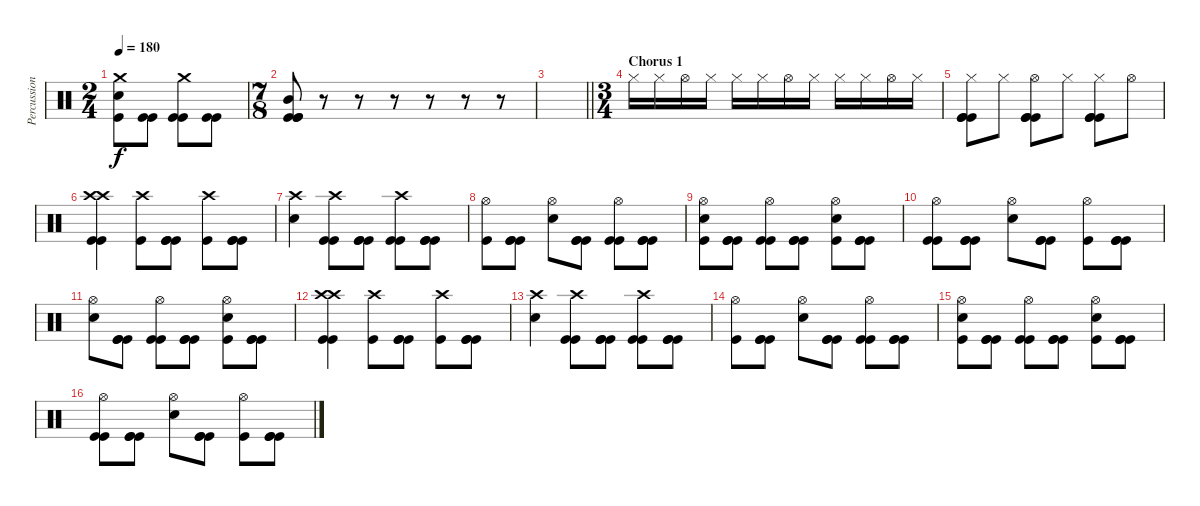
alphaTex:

\track ("Percussion" "Percussion") {instrument percussion}
\staff {score}
\articulation defaults
\ts (2 4)
\tempo 180
\clef neutral
\ks c
("Crash medium (hit)" "Electric Snare (hit)" "Kick (hit)").8{dy f} ("Kick (hit)" "Kick (hit)").8 ("Crash medium (hit)" "Kick (hit)" "Kick (hit)").8 ("Kick (hit)" "Kick (hit)").8 |
\ts (7 8)
("Mid Tom (hit)" "Kick (hit)" "Kick (hit)" "Kick (hit)").8 r.8 r.8 r.8 r.8 r.8 r.8 |
\barLineRight lightlight
|
\ts (3 4)
\section ("" "Chorus 1")
"Hi-Hat (closed)".16 "Hi-Hat (closed)".16 "Hi-Hat (open)".16 "Hi-Hat (closed)".16 "Hi-Hat (closed)".16 "Hi-Hat (closed)".16 "Hi-Hat (open)".16 "Hi-Hat (closed)".16 "Hi-Hat (closed)".16 "Hi-Hat (closed)".16 "Hi-Hat (open)".16 "Hi-Hat (closed)".16 |
("Kick (hit)" "Kick (hit)" "Kick (hit)" "Hi-Hat (closed)").8 "Hi-Hat (closed)".8 ("Kick (hit)" "Kick (hit)" "Kick (hit)" "Hi-Hat (open)").8 "Hi-Hat (closed)".8 ("Kick (hit)" "Kick (hit)" "Kick (hit)" "Hi-Hat (closed)").8 "Hi-Hat (open)".8 |
("Kick (hit)" "Crash high (hit)" "Crash high (hit)" "Kick (hit)").4 ("Crash high (hit)" "Kick (hit)").8 ("Kick (hit)" "Kick (hit)" "Kick (hit)").8 ("Crash high (hit)" "Kick (hit)").8 ("Kick (hit)" "Kick (hit)" "Kick (hit)").8 |
("Crash high (hit)" "Electric Snare (hit)").4 ("Crash high (hit)" "Kick (hit)" "Kick (hit)").8 ("Kick (hit)" "Kick (hit)" "Kick (hit)").8 ("Crash high (hit)" "Kick (hit)" "Kick (hit)").8 ("Kick (hit)" "Kick (hit)" "Kick (hit)").8 |
("Hi-Hat (open)" "Kick (hit)").8 ("Kick (hit)" "Kick (hit)" "Kick (hit)").8 ("Hi-Hat (open)" "Electric Snare (hit)").8 ("Kick (hit)" "Kick (hit)" "Kick (hit)").8 ("Hi-Hat (open)" "Kick (hit)" "Kick (hit)").8 ("Kick (hit)" "Kick (hit)" "Kick (hit)").8 |
("Hi-Hat (open)" "Electric Snare (hit)" "Kick (hit)").8 ("Kick (hit)" "Kick (hit)" "Kick (hit)").8 ("Hi-Hat (open)" "Kick (hit)" "Kick (hit)").8 ("Kick (hit)" "Kick (hit)" "Kick (hit)").8 ("Hi-Hat (open)" "Electric Snare (hit)" "Kick (hit)").8 ("Kick (hit)" "Kick (hit)" "Kick (hit)").8 |
("Hi-Hat (open)" "Kick (hit)" "Kick (hit)").8 ("Kick (hit)" "Kick (hit)" "Kick (hit)").8 ("Hi-Hat (open)" "Electric Snare (hit)").8 ("Kick (hit)" "Kick (hit)" "Kick (hit)").8 ("Hi-Hat (open)" "Kick (hit)").8 ("Kick (hit)" "Kick (hit)" "Kick (hit)").8 |
("Hi-Hat (open)" "Electric Snare (hit)").8 ("Kick (hit)" "Kick (hit)" "Kick (hit)").8 ("Hi-Hat (open)" "Kick (hit)" "Kick (hit)").8 ("Kick (hit)" "Kick (hit)" "Kick (hit)").8 ("Hi-Hat (open)" "Kick (hit)" "Electric Snare (hit)").8 ("Kick (hit)" "Kick (hit)" "Kick (hit)").8 |
("Kick (hit)" "Crash high (hit)" "Crash high (hit)" "Kick (hit)").4 ("Crash high (hit)" "Kick (hit)").8 ("Kick (hit)" "Kick (hit)" "Kick (hit)").8 ("Crash high (hit)" "Kick (hit)").8 ("Kick (hit)" "Kick (hit)" "Kick (hit)").8 |
("Crash high (hit)" "Electric Snare (hit)").4 ("Crash high (hit)" "Kick (hit)" "Kick (hit)").8 ("Kick (hit)" "Kick (hit)" "Kick (hit)").8 ("Crash high (hit)" "Kick (hit)" "Kick (hit)").8 ("Kick (hit)" "Kick (hit)" "Kick (hit)").8 |
("Hi-Hat (open)" "Kick (hit)").8 ("Kick (hit)" "Kick (hit)" "Kick (hit)").8 ("Hi-Hat (open)" "Electric Snare (hit)").8 ("Kick (hit)" "Kick (hit)" "Kick (hit)").8 ("Hi-Hat (open)" "Kick (hit)" "Kick (hit)").8 ("Kick (hit)" "Kick (hit)" "Kick (hit)").8 |
("Hi-Hat (open)" "Electric Snare (hit)" "Kick (hit)").8 ("Kick (hit)" "Kick (hit)" "Kick (hit)").8 ("Hi-Hat (open)" "Kick (hit)" "Kick (hit)").8 ("Kick (hit)" "Kick (hit)" "Kick (hit)").8 ("Hi-Hat (open)" "Electric Snare (hit)" "Kick (hit)").8 ("Kick (hit)" "Kick (hit)" "Kick (hit)").8 |
("Hi-Hat (open)" "Kick (hit)" "Kick (hit)").8 ("Kick (hit)" "Kick (hit)" "Kick (hit)").8 ("Hi-Hat (open)" "Electric Snare (hit)").8 ("Kick (hit)" "Kick (hit)" "Kick (hit)").8 ("Hi-Hat (open)" "Kick (hit)").8 ("Kick (hit)" "Kick (hit)" "Kick (hit)").8
